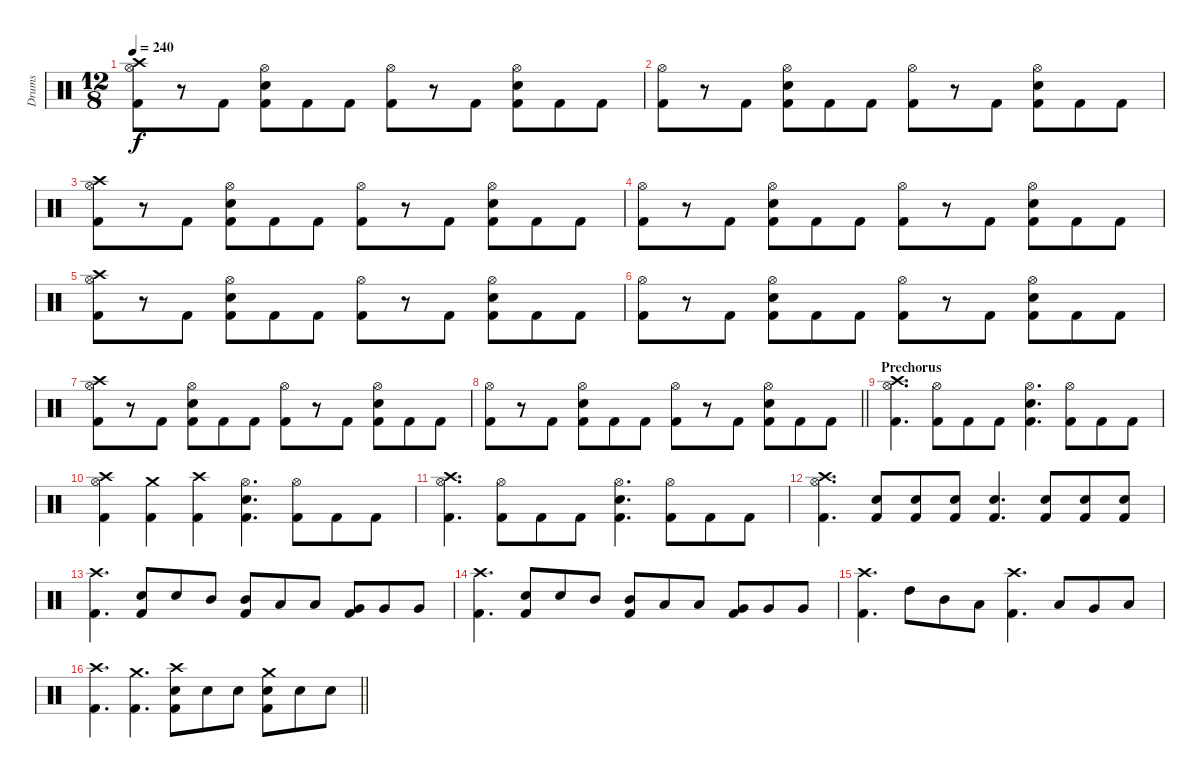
\track ("Drums" "Drums") {instrument percussion}
\staff {score}
\articulation defaults
\ts (12 8)
\tempo 240
\clef neutral
\ks c
("Crash high (hit)" "Hi-Hat (open)" "Kick (hit) 2").8{dy f} r.8 "Kick (hit) 2".8 ("Hi-Hat (open)" "Snare (hit) 2" "Kick (hit) 2").8 "Kick (hit) 2".8 "Kick (hit) 2".8 ("Hi-Hat (open)" "Kick (hit) 2").8 r.8 "Kick (hit) 2".8 ("Hi-Hat (open)" "Snare (hit) 2" "Kick (hit) 2").8 "Kick (hit) 2".8 "Kick (hit) 2".8 |
("Hi-Hat (open)" "Kick (hit) 2").8 r.8 "Kick (hit) 2".8 ("Hi-Hat (open)" "Snare (hit) 2" "Kick (hit) 2").8 "Kick (hit) 2".8 "Kick (hit) 2".8 ("Hi-Hat (open)" "Kick (hit) 2").8 r.8 "Kick (hit) 2".8 ("Hi-Hat (open)" "Snare (hit) 2" "Kick (hit) 2").8 "Kick (hit) 2".8 "Kick (hit) 2".8 |
("Crash high (hit)" "Hi-Hat (open)" "Kick (hit) 2").8 r.8 "Kick (hit) 2".8 ("Hi-Hat (open)" "Snare (hit) 2" "Kick (hit) 2").8 "Kick (hit) 2".8 "Kick (hit) 2".8 ("Hi-Hat (open)" "Kick (hit) 2").8 r.8 "Kick (hit) 2".8 ("Hi-Hat (open)" "Snare (hit) 2" "Kick (hit) 2").8 "Kick (hit) 2".8 "Kick (hit) 2".8 |
("Hi-Hat (open)" "Kick (hit) 2").8 r.8 "Kick (hit) 2".8 ("Hi-Hat (open)" "Snare (hit) 2" "Kick (hit) 2").8 "Kick (hit) 2".8 "Kick (hit) 2".8 ("Hi-Hat (open)" "Kick (hit) 2").8 r.8 "Kick (hit) 2".8 ("Hi-Hat (open)" "Snare (hit) 2" "Kick (hit) 2").8 "Kick (hit) 2".8 "Kick (hit) 2".8 |
("Crash high (hit)" "Hi-Hat (open)" "Kick (hit) 2").8 r.8 "Kick (hit) 2".8 ("Hi-Hat (open)" "Snare (hit) 2" "Kick (hit) 2").8 "Kick (hit) 2".8 "Kick (hit) 2".8 ("Hi-Hat (open)" "Kick (hit) 2").8 r.8 "Kick (hit) 2".8 ("Hi-Hat (open)" "Snare (hit) 2" "Kick (hit) 2").8 "Kick (hit) 2".8 "Kick (hit) 2".8 |
("Hi-Hat (open)" "Kick (hit) 2").8 r.8 "Kick (hit) 2".8 ("Hi-Hat (open)" "Snare (hit) 2" "Kick (hit) 2").8 "Kick (hit) 2".8 "Kick (hit) 2".8 ("Hi-Hat (open)" "Kick (hit) 2").8 r.8 "Kick (hit) 2".8 ("Hi-Hat (open)" "Snare (hit) 2" "Kick (hit) 2").8 "Kick (hit) 2".8 "Kick (hit) 2".8 |
("Crash high (hit)" "Hi-Hat (open)" "Kick (hit) 2").8 r.8 "Kick (hit) 2".8 ("Hi-Hat (open)" "Snare (hit) 2" "Kick (hit) 2").8 "Kick (hit) 2".8 "Kick (hit) 2".8 ("Hi-Hat (open)" "Kick (hit) 2").8 r.8 "Kick (hit) 2".8 ("Hi-Hat (open)" "Snare (hit) 2" "Kick (hit) 2").8 "Kick (hit) 2".8 "Kick (hit) 2".8 |
\barLineRight lightlight
("Hi-Hat (open)" "Kick (hit) 2").8 r.8 "Kick (hit) 2".8 ("Hi-Hat (open)" "Snare (hit) 2" "Kick (hit) 2").8 "Kick (hit) 2".8 "Kick (hit) 2".8 ("Hi-Hat (open)" "Kick (hit) 2").8 r.8 "Kick (hit) 2".8 ("Hi-Hat (open)" "Snare (hit) 2" "Kick (hit) 2").8 "Kick (hit) 2".8 "Kick (hit) 2".8 |
\section ("" "Prechorus")
("Crash high (hit)" "Hi-Hat (open)" "Kick (hit) 2").4{d} ("Hi-Hat (open)" "Kick (hit) 2").8 "Kick (hit) 2".8 "Kick (hit) 2".8 ("Hi-Hat (open)" "Snare (hit) 2" "Kick (hit) 2").4{d} ("Hi-Hat (open)" "Kick (hit) 2").8 "Kick (hit) 2".8 "Kick (hit) 2".8 |
("Crash high (hit)" "Hi-Hat (open)" "Kick (hit) 2").4 ("Crash medium (hit)" "Kick (hit) 2").4 ("Crash high (hit)" "Kick (hit) 2").4 ("Hi-Hat (open)" "Snare (hit) 2" "Kick (hit) 2").4{d} ("Hi-Hat (open)" "Kick (hit) 2").8 "Kick (hit) 2".8 "Kick (hit) 2".8 |
("Crash high (hit)" "Hi-Hat (open)" "Kick (hit) 2").4{d} ("Hi-Hat (open)" "Kick (hit) 2").8 "Kick (hit) 2".8 "Kick (hit) 2".8 ("Hi-Hat (open)" "Snare (hit) 2" "Kick (hit) 2").4{d} ("Hi-Hat (open)" "Kick (hit) 2").8 "Kick (hit) 2".8 "Kick (hit) 2".8 |
("Crash high (hit)" "Hi-Hat (open)" "Kick (hit) 2").4{d} ("Snare (hit) 2" "Kick (hit) 2").8 ("Snare (hit) 2" "Kick (hit) 2").8 ("Snare (hit) 2" "Kick (hit) 2").8 ("Snare (hit) 2" "Kick (hit) 2").4{d} ("Snare (hit) 2" "Kick (hit) 2").8 ("Snare (hit) 2" "Kick (hit) 2").8 ("Snare (hit) 2" "Kick (hit) 2").8 |
("Crash high (hit)" "Kick (hit) 2").4{d} ("Snare (hit) 2" "Kick (hit) 2").8 "Snare (hit) 2".8 "Mid Tom (hit)".8 ("Mid Tom (hit)" "Kick (hit) 2").8 "Low Tom (hit)".8 "Low Tom (hit)".8 ("Very Low Tom (hit)" "Kick (hit) 2").8 "Very Low Tom (hit)".8 "Very Low Tom (hit)".8 |
("Crash high (hit)" "Kick (hit) 2").4{d} ("Snare (hit) 2" "Kick (hit) 2").8 "Snare (hit) 2".8 "Mid Tom (hit)".8 ("Mid Tom (hit)" "Kick (hit) 2").8 "Low Tom (hit)".8 "Low Tom (hit)".8 ("Very Low Tom (hit)" "Kick (hit) 2").8 "Very Low Tom (hit)".8 "Very Low Tom (hit)".8 |
("Crash high (hit)" "Kick (hit) 2").4{d} "High Tom (hit)".8 "Mid Tom (hit)".8 "Low Tom (hit)".8 ("Crash high (hit)" "Kick (hit) 2").4{d} "Low Tom (hit)".8 "Very Low Tom (hit)".8 "Low Floor Tom (hit)".8 |
\barLineRight lightlight
("Crash high (hit)" "Kick (hit) 2").4{d} ("Crash medium (hit)" "Kick (hit) 2").4{d} ("Crash high (hit)" "Snare (hit) 2" "Kick (hit) 2").8 "Snare (hit) 2".8 "Snare (hit) 2".8 ("Crash medium (hit)" "Snare (hit) 2" "Kick (hit) 2").8 "Snare (hit) 2".8 "Snare (hit) 2".8
